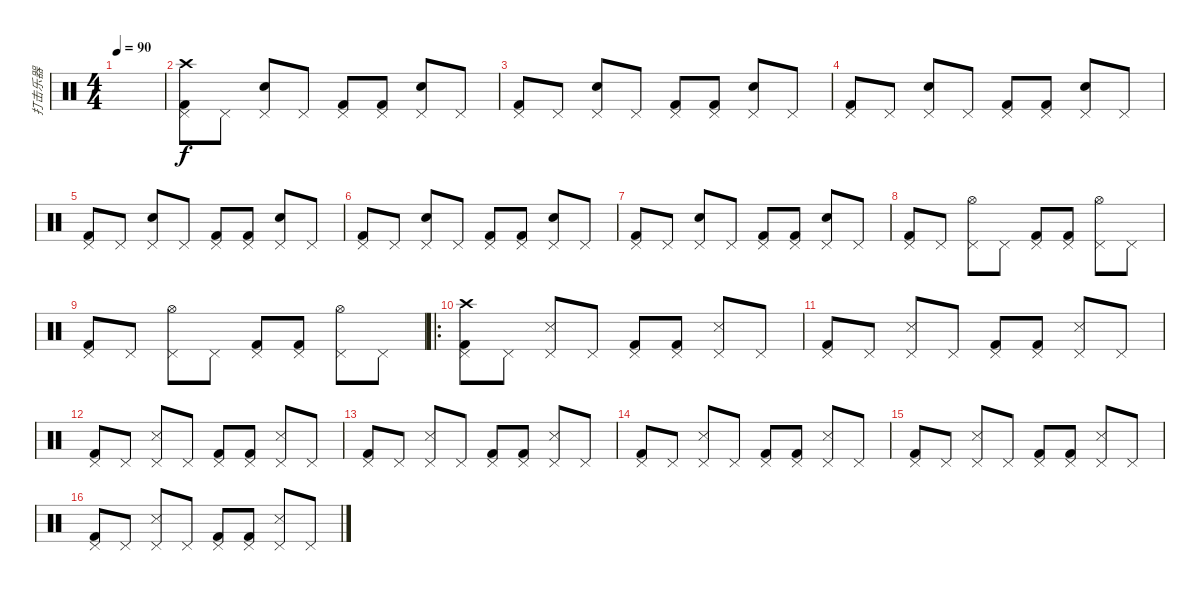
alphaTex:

\track ("打击乐器" "打击乐器") {instrument percussion}
\staff {score}
\articulation defaults
\ts (4 4)
\tempo 90
\clef neutral
\ks c
|
("Crash high (hit)" "Kick (hit) 2" "Pedal Hi-Hat (hit)").8 "Pedal Hi-Hat (hit)".8 ("Snare (hit) 2" "Pedal Hi-Hat (hit)").8 "Pedal Hi-Hat (hit)".8 ("Kick (hit) 2" "Pedal Hi-Hat (hit)").8 ("Kick (hit) 2" "Pedal Hi-Hat (hit)").8 ("Snare (hit) 2" "Pedal Hi-Hat (hit)").8 "Pedal Hi-Hat (hit)".8 |
("Kick (hit) 2" "Pedal Hi-Hat (hit)").8 "Pedal Hi-Hat (hit)".8 ("Snare (hit) 2" "Pedal Hi-Hat (hit)").8 "Pedal Hi-Hat (hit)".8 ("Kick (hit) 2" "Pedal Hi-Hat (hit)").8 ("Kick (hit) 2" "Pedal Hi-Hat (hit)").8 ("Snare (hit) 2" "Pedal Hi-Hat (hit)").8 "Pedal Hi-Hat (hit)".8 |
("Kick (hit) 2" "Pedal Hi-Hat (hit)").8 "Pedal Hi-Hat (hit)".8 ("Snare (hit) 2" "Pedal Hi-Hat (hit)").8 "Pedal Hi-Hat (hit)".8 ("Kick (hit) 2" "Pedal Hi-Hat (hit)").8 ("Kick (hit) 2" "Pedal Hi-Hat (hit)").8 ("Snare (hit) 2" "Pedal Hi-Hat (hit)").8 "Pedal Hi-Hat (hit)".8 |
("Kick (hit) 2" "Pedal Hi-Hat (hit)").8 "Pedal Hi-Hat (hit)".8 ("Snare (hit) 2" "Pedal Hi-Hat (hit)").8 "Pedal Hi-Hat (hit)".8 ("Kick (hit) 2" "Pedal Hi-Hat (hit)").8 ("Kick (hit) 2" "Pedal Hi-Hat (hit)").8 ("Snare (hit) 2" "Pedal Hi-Hat (hit)").8 "Pedal Hi-Hat (hit)".8 |
("Kick (hit) 2" "Pedal Hi-Hat (hit)").8 "Pedal Hi-Hat (hit)".8 ("Snare (hit) 2" "Pedal Hi-Hat (hit)").8 "Pedal Hi-Hat (hit)".8 ("Kick (hit) 2" "Pedal Hi-Hat (hit)").8 ("Kick (hit) 2" "Pedal Hi-Hat (hit)").8 ("Snare (hit) 2" "Pedal Hi-Hat (hit)").8 "Pedal Hi-Hat (hit)".8 |
("Kick (hit) 2" "Pedal Hi-Hat (hit)").8 "Pedal Hi-Hat (hit)".8 ("Snare (hit) 2" "Pedal Hi-Hat (hit)").8 "Pedal Hi-Hat (hit)".8 ("Kick (hit) 2" "Pedal Hi-Hat (hit)").8 ("Kick (hit) 2" "Pedal Hi-Hat (hit)").8 ("Snare (hit) 2" "Pedal Hi-Hat (hit)").8 "Pedal Hi-Hat (hit)".8 |
("Kick (hit) 2" "Pedal Hi-Hat (hit)").8 "Pedal Hi-Hat (hit)".8 ("Hi-Hat (open)" "Pedal Hi-Hat (hit)").8 "Pedal Hi-Hat (hit)".8 ("Pedal Hi-Hat (hit)" "Kick (hit) 2").8 ("Pedal Hi-Hat (hit)" "Kick (hit) 2").8 ("Hi-Hat (open)" "Pedal Hi-Hat (hit)").8 "Pedal Hi-Hat (hit)".8 |
("Kick (hit) 2" "Pedal Hi-Hat (hit)").8 "Pedal Hi-Hat (hit)".8 ("Hi-Hat (open)" "Pedal Hi-Hat (hit)").8 "Pedal Hi-Hat (hit)".8 ("Pedal Hi-Hat (hit)" "Kick (hit) 2").8 ("Pedal Hi-Hat (hit)" "Kick (hit) 2").8 ("Hi-Hat (open)" "Pedal Hi-Hat (hit)").8 "Pedal Hi-Hat (hit)".8 |
\ro
("Crash high (hit)" "Kick (hit) 2" "Pedal Hi-Hat (hit)").8 "Pedal Hi-Hat (hit)".8 ("Snare (side stick) 3" "Pedal Hi-Hat (hit)").8 "Pedal Hi-Hat (hit)".8 ("Kick (hit) 2" "Pedal Hi-Hat (hit)").8 ("Kick (hit) 2" "Pedal Hi-Hat (hit)").8 ("Snare (side stick) 3" "Pedal Hi-Hat (hit)").8 "Pedal Hi-Hat (hit)".8 |
("Kick (hit) 2" "Pedal Hi-Hat (hit)").8 "Pedal Hi-Hat (hit)".8 ("Snare (side stick) 3" "Pedal Hi-Hat (hit)").8 "Pedal Hi-Hat (hit)".8 ("Kick (hit) 2" "Pedal Hi-Hat (hit)").8 ("Kick (hit) 2" "Pedal Hi-Hat (hit)").8 ("Snare (side stick) 3" "Pedal Hi-Hat (hit)").8 "Pedal Hi-Hat (hit)".8 |
("Kick (hit) 2" "Pedal Hi-Hat (hit)").8 "Pedal Hi-Hat (hit)".8 ("Snare (side stick) 3" "Pedal Hi-Hat (hit)").8 "Pedal Hi-Hat (hit)".8 ("Kick (hit) 2" "Pedal Hi-Hat (hit)").8 ("Kick (hit) 2" "Pedal Hi-Hat (hit)").8 ("Snare (side stick) 3" "Pedal Hi-Hat (hit)").8 "Pedal Hi-Hat (hit)".8 |
("Kick (hit) 2" "Pedal Hi-Hat (hit)").8 "Pedal Hi-Hat (hit)".8 ("Snare (side stick) 3" "Pedal Hi-Hat (hit)").8 "Pedal Hi-Hat (hit)".8 ("Kick (hit) 2" "Pedal Hi-Hat (hit)").8 ("Kick (hit) 2" "Pedal Hi-Hat (hit)").8 ("Snare (side stick) 3" "Pedal Hi-Hat (hit)").8 "Pedal Hi-Hat (hit)".8 |
("Kick (hit) 2" "Pedal Hi-Hat (hit)").8 "Pedal Hi-Hat (hit)".8 ("Snare (side stick) 3" "Pedal Hi-Hat (hit)").8 "Pedal Hi-Hat (hit)".8 ("Kick (hit) 2" "Pedal Hi-Hat (hit)").8 ("Kick (hit) 2" "Pedal Hi-Hat (hit)").8 ("Snare (side stick) 3" "Pedal Hi-Hat (hit)").8 "Pedal Hi-Hat (hit)".8 |
("Kick (hit) 2" "Pedal Hi-Hat (hit)").8 "Pedal Hi-Hat (hit)".8 ("Snare (side stick) 3" "Pedal Hi-Hat (hit)").8 "Pedal Hi-Hat (hit)".8 ("Kick (hit) 2" "Pedal Hi-Hat (hit)").8 ("Kick (hit) 2" "Pedal Hi-Hat (hit)").8 ("Snare (side stick) 3" "Pedal Hi-Hat (hit)").8 "Pedal Hi-Hat (hit)".8 |
("Kick (hit) 2" "Pedal Hi-Hat (hit)").8 "Pedal Hi-Hat (hit)".8 ("Snare (side stick) 3" "Pedal Hi-Hat (hit)").8 "Pedal Hi-Hat (hit)".8 ("Kick (hit) 2" "Pedal Hi-Hat (hit)").8 ("Kick (hit) 2" "Pedal Hi-Hat (hit)").8 ("Snare (side stick) 3" "Pedal Hi-Hat (hit)").8 "Pedal Hi-Hat (hit)".8
